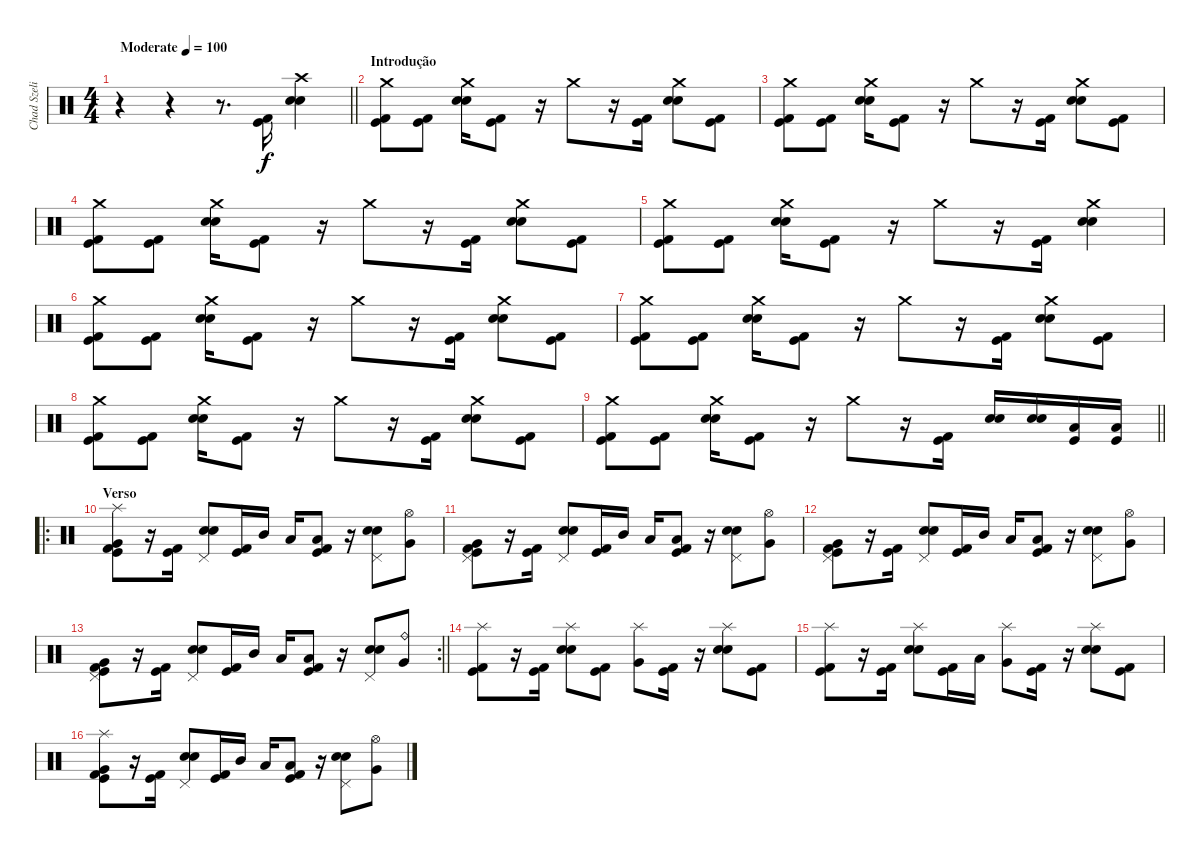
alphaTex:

\track ("Chad Szeliga" "Chad Szeli") {instrument percussion}
\staff {score}
\articulation defaults
\ts (4 4)
\tempo (100 "Moderate")
\clef neutral
\barLineRight lightlight
\ks c
r.4{dy f} r.4 r.8{d} ("Kick (hit) 2" "Kick (hit)").16{beam Down} ("Crash high (hit)" "Snare (hit) 2" "Snare (hit) 2").4 |
\section ("" "Introdução")
("Crash medium (hit)" "Kick (hit) 2" "Kick (hit)").8 ("Kick (hit) 2" "Kick (hit)").8 ("Crash medium (hit)" "Snare (hit) 2" "Snare (hit) 2").16 ("Kick (hit) 2" "Kick (hit)").8 r.16 "Crash medium (hit)".8 r.16 ("Kick (hit) 2" "Kick (hit)").16{beam Down} ("Crash medium (hit)" "Snare (hit) 2" "Snare (hit) 2").8 ("Kick (hit) 2" "Kick (hit)").8 |
("Crash medium (hit)" "Kick (hit) 2" "Kick (hit)").8 ("Kick (hit) 2" "Kick (hit)").8 ("Crash medium (hit)" "Snare (hit) 2" "Snare (hit) 2").16 ("Kick (hit) 2" "Kick (hit)").8 r.16 "Crash medium (hit)".8 r.16 ("Kick (hit) 2" "Kick (hit)").16{beam Down} ("Crash medium (hit)" "Snare (hit) 2" "Snare (hit) 2").8 ("Kick (hit) 2" "Kick (hit)").8 |
("Crash medium (hit)" "Kick (hit) 2" "Kick (hit)").8 ("Kick (hit) 2" "Kick (hit)").8 ("Crash medium (hit)" "Snare (hit) 2" "Snare (hit) 2").16 ("Kick (hit) 2" "Kick (hit)").8 r.16 "Crash medium (hit)".8 r.16 ("Kick (hit) 2" "Kick (hit)").16{beam Down} ("Crash medium (hit)" "Snare (hit) 2" "Snare (hit) 2").8 ("Kick (hit) 2" "Kick (hit)").8 |
("Crash medium (hit)" "Kick (hit) 2" "Kick (hit)").8 ("Kick (hit) 2" "Kick (hit)").8 ("Crash medium (hit)" "Snare (hit) 2" "Snare (hit) 2").16 ("Kick (hit) 2" "Kick (hit)").8 r.16 "Crash medium (hit)".8 r.16 ("Kick (hit) 2" "Kick (hit)").16{beam Down} ("Crash medium (hit)" "Snare (hit) 2" "Snare (hit) 2").4 |
("Crash medium (hit)" "Kick (hit) 2" "Kick (hit)").8 ("Kick (hit) 2" "Kick (hit)").8 ("Crash medium (hit)" "Snare (hit) 2" "Snare (hit) 2").16 ("Kick (hit) 2" "Kick (hit)").8 r.16 "Crash medium (hit)".8 r.16 ("Kick (hit) 2" "Kick (hit)").16{beam Down} ("Crash medium (hit)" "Snare (hit) 2" "Snare (hit) 2").8 ("Kick (hit) 2" "Kick (hit)").8 |
("Crash medium (hit)" "Kick (hit) 2" "Kick (hit)").8 ("Kick (hit) 2" "Kick (hit)").8 ("Crash medium (hit)" "Snare (hit) 2" "Snare (hit) 2").16 ("Kick (hit) 2" "Kick (hit)").8 r.16 "Crash medium (hit)".8 r.16 ("Kick (hit) 2" "Kick (hit)").16{beam Down} ("Crash medium (hit)" "Snare (hit) 2" "Snare (hit) 2").8 ("Kick (hit) 2" "Kick (hit)").8 |
("Crash medium (hit)" "Kick (hit) 2" "Kick (hit)").8 ("Kick (hit) 2" "Kick (hit)").8 ("Crash medium (hit)" "Snare (hit) 2" "Snare (hit) 2").16 ("Kick (hit) 2" "Kick (hit)").8 r.16 "Crash medium (hit)".8 r.16 ("Kick (hit) 2" "Kick (hit)").16{beam Down} ("Crash medium (hit)" "Snare (hit) 2" "Snare (hit) 2").8 ("Kick (hit) 2" "Kick (hit)").8 |
\barLineRight lightlight
("Crash medium (hit)" "Kick (hit) 2" "Kick (hit)").8 ("Kick (hit) 2" "Kick (hit)").8 ("Crash medium (hit)" "Snare (hit) 2" "Snare (hit) 2").16 ("Kick (hit) 2" "Kick (hit)").8 r.16 "Crash medium (hit)".8 r.16 ("Kick (hit) 2" "Kick (hit)").16{beam Down} ("Snare (hit) 2" "Snare (hit) 2").16 ("Snare (hit) 2" "Snare (hit) 2").16 ("Kick (hit)" "Low Tom (hit)").16 ("Kick (hit)" "Low Tom (hit)").16 |
\ro
\section ("" "Verso")
("Splash (hit)" "Kick (hit) 2" "Kick (hit)" "Very Low Tom (hit)").8 r.16 ("Kick (hit) 2" "Kick (hit)").16{beam Down} ("Snare (hit) 2" "Snare (hit) 2" "Pedal Hi-Hat (hit)").8 ("Kick (hit) 2" "Kick (hit)").16 "Mid Tom (hit)".16 "Low Tom (hit)".16 ("Kick (hit) 2" "Kick (hit)" "Low Tom (hit)").8 r.16 ("Snare (hit) 2" "Snare (hit) 2" "Pedal Hi-Hat (hit)").8 ("Very Low Tom (hit)" "Hi-Hat (open)").8 |
("Kick (hit) 2" "Kick (hit)" "Very Low Tom (hit)" "Pedal Hi-Hat (hit)").8 r.16 ("Kick (hit) 2" "Kick (hit)").16{beam Down} ("Snare (hit) 2" "Snare (hit) 2" "Pedal Hi-Hat (hit)").8 ("Kick (hit) 2" "Kick (hit)").16 "Mid Tom (hit)".16 "Low Tom (hit)".16 ("Kick (hit) 2" "Kick (hit)" "Low Tom (hit)").8 r.16 ("Snare (hit) 2" "Snare (hit) 2" "Pedal Hi-Hat (hit)").8 ("Very Low Tom (hit)" "Hi-Hat (open)").8 |
("Kick (hit) 2" "Kick (hit)" "Very Low Tom (hit)" "Pedal Hi-Hat (hit)").8 r.16 ("Kick (hit) 2" "Kick (hit)").16{beam Down} ("Snare (hit) 2" "Snare (hit) 2" "Pedal Hi-Hat (hit)").8 ("Kick (hit) 2" "Kick (hit)").16 "Mid Tom (hit)".16 "Low Tom (hit)".16 ("Kick (hit) 2" "Kick (hit)" "Low Tom (hit)").8 r.16 ("Snare (hit) 2" "Snare (hit) 2" "Pedal Hi-Hat (hit)").8 ("Very Low Tom (hit)" "Hi-Hat (open)").8 |
\rc 2
\barLineRight lightlight
("Kick (hit) 2" "Kick (hit)" "Very Low Tom (hit)" "Pedal Hi-Hat (hit)").8 r.16 ("Kick (hit) 2" "Kick (hit)").16{beam Down} ("Snare (hit) 2" "Snare (hit) 2" "Pedal Hi-Hat (hit)").8 ("Kick (hit) 2" "Kick (hit)").16 "Mid Tom (hit)".16 "Low Tom (hit)".16 ("Kick (hit) 2" "Kick (hit)" "Low Tom (hit)").8 r.16 ("Snare (hit) 2" "Snare (hit) 2" "Pedal Hi-Hat (hit)").8 ("Ride (bell)" "Very Low Tom (hit)").8 |
("Splash (hit)" "Kick (hit) 2" "Kick (hit)").8 r.16 ("Kick (hit) 2" "Kick (hit)").16{beam Down} ("Splash (hit)" "Snare (hit) 2" "Snare (hit) 2").8 ("Kick (hit) 2" "Kick (hit)").8 ("Splash (hit)" "Very Low Tom (hit)").8 ("Kick (hit) 2" "Kick (hit)").16 r.16 ("Splash (hit)" "Snare (hit) 2" "Snare (hit) 2").8 ("Kick (hit) 2" "Kick (hit)").8 |
("Splash (hit)" "Kick (hit) 2" "Kick (hit)").8 r.16 ("Kick (hit) 2" "Kick (hit)").16{beam Down} ("Splash (hit)" "Snare (hit) 2" "Snare (hit) 2").8 ("Kick (hit) 2" "Kick (hit)").16 "Low Tom (hit)".16 ("Splash (hit)" "Very Low Tom (hit)").8 ("Kick (hit) 2" "Kick (hit)").16 r.16 ("Splash (hit)" "Snare (hit) 2" "Snare (hit) 2").8 ("Kick (hit) 2" "Kick (hit)").8 |
("Splash (hit)" "Kick (hit) 2" "Kick (hit)" "Very Low Tom (hit)").8 r.16 ("Kick (hit) 2" "Kick (hit)").16{beam Down} ("Snare (hit) 2" "Snare (hit) 2" "Pedal Hi-Hat (hit)").8 ("Kick (hit) 2" "Kick (hit)").16 "Mid Tom (hit)".16 "Low Tom (hit)".16 ("Kick (hit) 2" "Kick (hit)" "Low Tom (hit)").8 r.16 ("Snare (hit) 2" "Snare (hit) 2" "Pedal Hi-Hat (hit)").8 ("Very Low Tom (hit)" "Hi-Hat (open)").8
